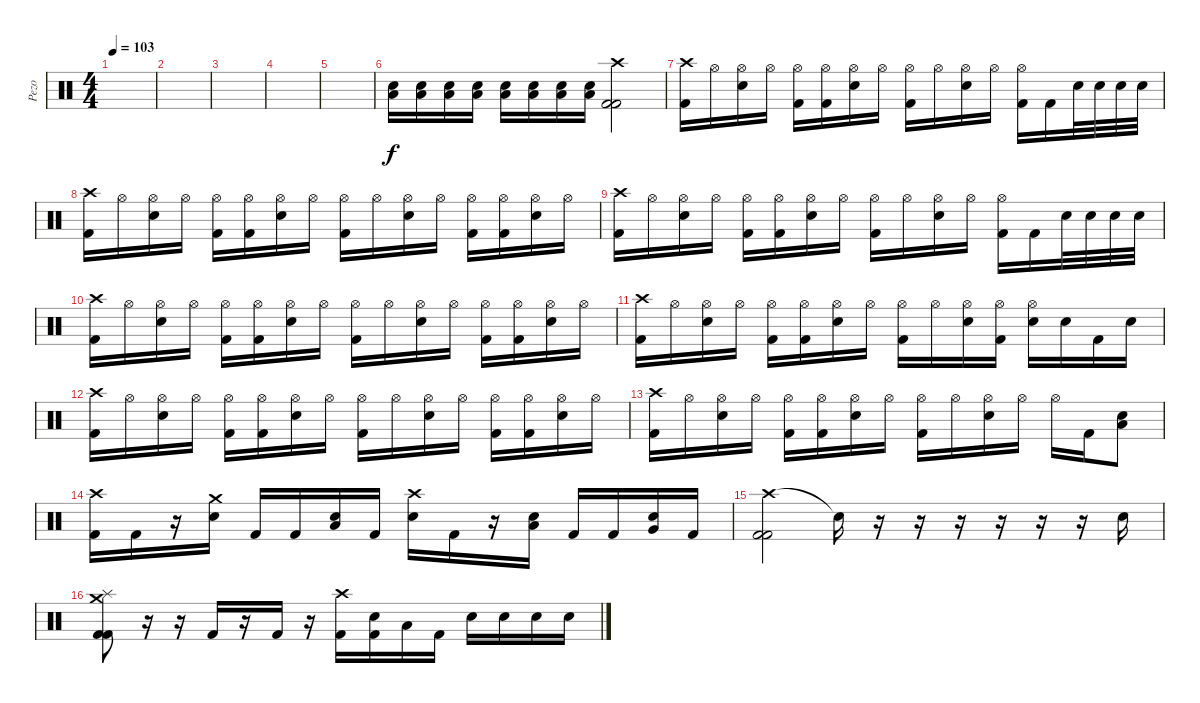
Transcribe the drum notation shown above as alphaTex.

\track ("Pezo" "Pezo") {instrument percussion}
\staff {score}
\articulation defaults
\ts (4 4)
\tempo 103
\clef neutral
\ks c
|
|
|
|
|
("Low Floor Tom (hit)" "Electric Snare (hit)").16{volume 15} ("Low Floor Tom (hit)" "Electric Snare (hit)").16 ("Low Floor Tom (hit)" "Electric Snare (hit)").16 ("Low Floor Tom (hit)" "Electric Snare (hit)").16 ("Low Floor Tom (hit)" "Electric Snare (hit)").16 ("Low Floor Tom (hit)" "Electric Snare (hit)").16 ("Low Floor Tom (hit)" "Electric Snare (hit)").16 ("Low Floor Tom (hit)" "Electric Snare (hit)").16 ("Crash high (hit)" "Kick (hit) 2" "Kick (hit) 2").2 |
("Crash high (hit)" "Kick (hit) 2").16 "Hi-Hat (open)".16 ("Hi-Hat (open)" "Electric Snare (hit)").16 "Hi-Hat (open)".16 ("Hi-Hat (open)" "Kick (hit) 2").16 ("Hi-Hat (open)" "Kick (hit) 2").16 ("Hi-Hat (open)" "Electric Snare (hit)").16 "Hi-Hat (open)".16 ("Hi-Hat (open)" "Kick (hit) 2").16 "Hi-Hat (open)".16 ("Hi-Hat (open)" "Electric Snare (hit)").16 "Hi-Hat (open)".16 ("Hi-Hat (open)" "Kick (hit) 2").16 "Kick (hit) 2".16 "Electric Snare (hit)".32 "Electric Snare (hit)".32 "Electric Snare (hit)".32 "Electric Snare (hit)".32 |
("Crash high (hit)" "Kick (hit) 2").16 "Hi-Hat (open)".16 ("Hi-Hat (open)" "Electric Snare (hit)").16 "Hi-Hat (open)".16 ("Hi-Hat (open)" "Kick (hit) 2").16 ("Hi-Hat (open)" "Kick (hit) 2").16 ("Hi-Hat (open)" "Electric Snare (hit)").16 "Hi-Hat (open)".16 ("Hi-Hat (open)" "Kick (hit) 2").16 "Hi-Hat (open)".16 ("Hi-Hat (open)" "Electric Snare (hit)").16 "Hi-Hat (open)".16 ("Hi-Hat (open)" "Kick (hit) 2").16 ("Hi-Hat (open)" "Kick (hit) 2").16 ("Hi-Hat (open)" "Electric Snare (hit)").16 "Hi-Hat (open)".16 |
("Crash high (hit)" "Kick (hit) 2").16 "Hi-Hat (open)".16 ("Hi-Hat (open)" "Electric Snare (hit)").16 "Hi-Hat (open)".16 ("Hi-Hat (open)" "Kick (hit) 2").16 ("Hi-Hat (open)" "Kick (hit) 2").16 ("Hi-Hat (open)" "Electric Snare (hit)").16 "Hi-Hat (open)".16 ("Hi-Hat (open)" "Kick (hit) 2").16 "Hi-Hat (open)".16 ("Hi-Hat (open)" "Electric Snare (hit)").16 "Hi-Hat (open)".16 ("Hi-Hat (open)" "Kick (hit) 2").16 "Kick (hit) 2".16 "Electric Snare (hit)".32 "Electric Snare (hit)".32 "Electric Snare (hit)".32 "Electric Snare (hit)".32 |
("Crash high (hit)" "Kick (hit) 2").16 "Hi-Hat (open)".16 ("Hi-Hat (open)" "Electric Snare (hit)").16 "Hi-Hat (open)".16 ("Hi-Hat (open)" "Kick (hit) 2").16 ("Hi-Hat (open)" "Kick (hit) 2").16 ("Hi-Hat (open)" "Electric Snare (hit)").16 "Hi-Hat (open)".16 ("Hi-Hat (open)" "Kick (hit) 2").16 "Hi-Hat (open)".16 ("Hi-Hat (open)" "Electric Snare (hit)").16 "Hi-Hat (open)".16 ("Hi-Hat (open)" "Kick (hit) 2").16 ("Hi-Hat (open)" "Kick (hit) 2").16 ("Hi-Hat (open)" "Electric Snare (hit)").16 "Hi-Hat (open)".16 |
("Crash high (hit)" "Kick (hit) 2").16 "Hi-Hat (open)".16 ("Hi-Hat (open)" "Electric Snare (hit)").16 "Hi-Hat (open)".16 ("Hi-Hat (open)" "Kick (hit) 2").16 ("Hi-Hat (open)" "Kick (hit) 2").16 ("Hi-Hat (open)" "Electric Snare (hit)").16 "Hi-Hat (open)".16 ("Hi-Hat (open)" "Kick (hit) 2").16 "Hi-Hat (open)".16 ("Hi-Hat (open)" "Electric Snare (hit)").16 ("Hi-Hat (open)" "Kick (hit) 2").16 ("Hi-Hat (open)" "Electric Snare (hit)").16 "Electric Snare (hit)".16 "Kick (hit) 2".16 "Electric Snare (hit)".16 |
("Crash high (hit)" "Kick (hit) 2").16 "Hi-Hat (open)".16 ("Hi-Hat (open)" "Electric Snare (hit)").16 "Hi-Hat (open)".16 ("Hi-Hat (open)" "Kick (hit) 2").16 ("Hi-Hat (open)" "Kick (hit) 2").16 ("Hi-Hat (open)" "Electric Snare (hit)").16 "Hi-Hat (open)".16 ("Hi-Hat (open)" "Kick (hit) 2").16 "Hi-Hat (open)".16 ("Hi-Hat (open)" "Electric Snare (hit)").16 "Hi-Hat (open)".16 ("Hi-Hat (open)" "Kick (hit) 2").16 ("Hi-Hat (open)" "Kick (hit) 2").16 ("Hi-Hat (open)" "Electric Snare (hit)").16 "Hi-Hat (open)".16 |
("Crash high (hit)" "Kick (hit) 2").16 "Hi-Hat (open)".16 ("Hi-Hat (open)" "Electric Snare (hit)").16 "Hi-Hat (open)".16 ("Hi-Hat (open)" "Kick (hit) 2").16 ("Hi-Hat (open)" "Kick (hit) 2").16 ("Hi-Hat (open)" "Electric Snare (hit)").16 "Hi-Hat (open)".16 ("Hi-Hat (open)" "Kick (hit) 2").16 "Hi-Hat (open)".16 ("Hi-Hat (open)" "Electric Snare (hit)").16 "Hi-Hat (open)".16 "Hi-Hat (open)".16 "Kick (hit) 2".16 ("Low Floor Tom (hit)" "Electric Snare (hit)").8 |
("Crash high (hit)" "Kick (hit) 2").16 "Kick (hit) 2".16 r.16 ("Crash medium (hit)" "Electric Snare (hit)").16 "Kick (hit) 2".16 "Kick (hit) 2".16 ("Low Floor Tom (hit)" "Electric Snare (hit)").16 "Kick (hit) 2".16 ("Crash high (hit)" "Electric Snare (hit)").16 "Kick (hit) 2".16 r.16 ("Low Floor Tom (hit)" "Electric Snare (hit)").16 "Kick (hit) 2".16 "Kick (hit) 2".16 ("Very Low Tom (hit)" "Electric Snare (hit)").16 "Kick (hit) 2".16 |
("Crash high (hit)" "Kick (hit) 2" "Kick (hit) 2").2 "Snare (hit)"{t}.16 r.16 r.16 r.16 r.16 r.16 r.16 "Electric Snare (hit)".16 |
("Crash medium (hit)" "Splash (hit)" "Kick (hit) 2" "Kick (hit) 2").8 r.16 r.16 "Kick (hit) 2".16 r.16 "Kick (hit) 2".16 r.16 ("Crash high (hit)" "Kick (hit) 2").16 ("Electric Snare (hit)" "Kick (hit) 2").16 "Low Tom (hit)".16 "Kick (hit) 2".16 "Electric Snare (hit)".16 "Electric Snare (hit)".16 "Electric Snare (hit)".16 "Electric Snare (hit)".16
